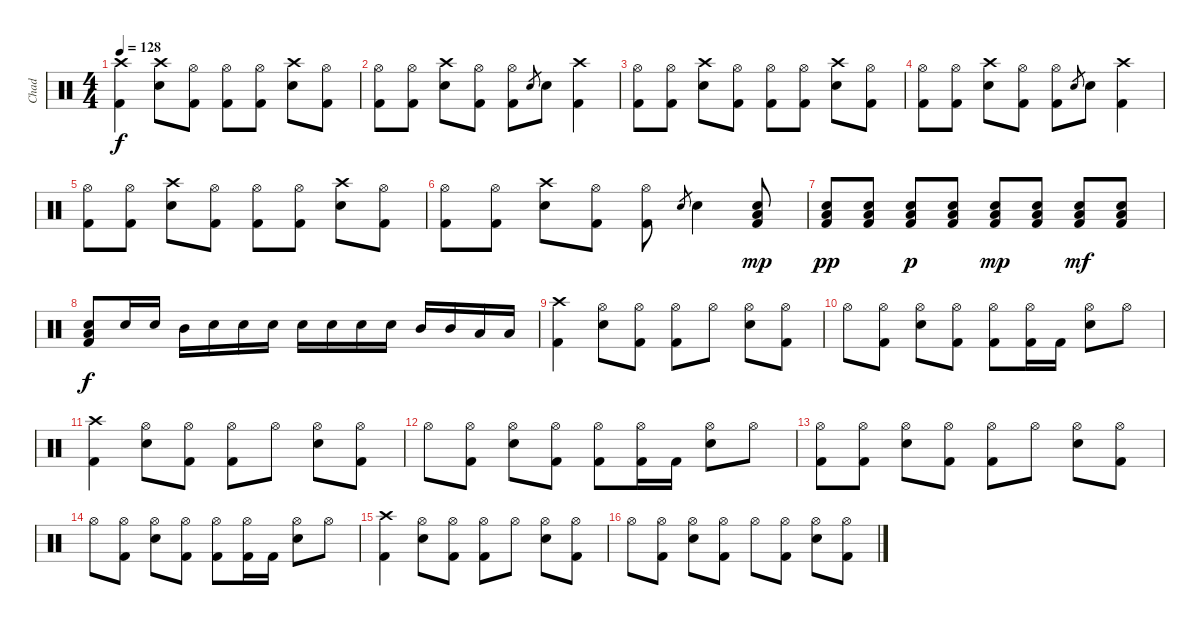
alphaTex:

\track ("Chad" "Chad") {instrument percussion}
\staff {score}
\articulation defaults
\ts (4 4)
\tempo 128
\clef neutral
\ks c
("Crash high (hit)" "Kick (hit) 2").4{dy f} ("Crash high (hit)" "Snare (hit) 2").8 ("Hi-Hat (open)" "Kick (hit) 2").8 ("Hi-Hat (open)" "Kick (hit) 2").8 ("Hi-Hat (open)" "Kick (hit) 2").8 ("Crash high (hit)" "Snare (hit) 2").8 ("Hi-Hat (open)" "Kick (hit) 2").8 |
("Hi-Hat (open)" "Kick (hit) 2").8 ("Hi-Hat (open)" "Kick (hit) 2").8 ("Crash high (hit)" "Snare (hit) 2").8 ("Hi-Hat (open)" "Kick (hit) 2").8 ("Hi-Hat (open)" "Kick (hit) 2").8 "Snare (hit) 2".8{gr} "Snare (hit) 2".8 ("Crash high (hit)" "Kick (hit) 2").4 |
("Hi-Hat (open)" "Kick (hit) 2").8 ("Hi-Hat (open)" "Kick (hit) 2").8 ("Crash high (hit)" "Snare (hit) 2").8 ("Hi-Hat (open)" "Kick (hit) 2").8 ("Hi-Hat (open)" "Kick (hit) 2").8 ("Hi-Hat (open)" "Kick (hit) 2").8 ("Crash high (hit)" "Snare (hit) 2").8 ("Hi-Hat (open)" "Kick (hit) 2").8 |
("Hi-Hat (open)" "Kick (hit) 2").8 ("Hi-Hat (open)" "Kick (hit) 2").8 ("Crash high (hit)" "Snare (hit) 2").8 ("Hi-Hat (open)" "Kick (hit) 2").8 ("Hi-Hat (open)" "Kick (hit) 2").8 "Snare (hit) 2".8{gr} "Snare (hit) 2".8 ("Crash high (hit)" "Kick (hit) 2").4 |
("Hi-Hat (open)" "Kick (hit) 2").8 ("Hi-Hat (open)" "Kick (hit) 2").8 ("Crash high (hit)" "Snare (hit) 2").8 ("Hi-Hat (open)" "Kick (hit) 2").8 ("Hi-Hat (open)" "Kick (hit) 2").8 ("Hi-Hat (open)" "Kick (hit) 2").8 ("Crash high (hit)" "Snare (hit) 2").8 ("Hi-Hat (open)" "Kick (hit) 2").8 |
("Hi-Hat (open)" "Kick (hit) 2").8 ("Hi-Hat (open)" "Kick (hit) 2").8 ("Crash high (hit)" "Snare (hit) 2").8 ("Hi-Hat (open)" "Kick (hit) 2").8 ("Hi-Hat (open)" "Kick (hit) 2").8 "Snare (hit) 2".8{gr} "Snare (hit) 2".4 ("Low Tom (hit)" "Snare (hit) 2" "Kick (hit) 2").8{dy mp} |
("Low Tom (hit)" "Snare (hit) 2" "Kick (hit) 2").8{dy pp} ("Low Tom (hit)" "Snare (hit) 2" "Kick (hit) 2").8 ("Low Tom (hit)" "Snare (hit) 2" "Kick (hit) 2").8{dy p} ("Low Tom (hit)" "Snare (hit) 2" "Kick (hit) 2").8 ("Low Tom (hit)" "Snare (hit) 2" "Kick (hit) 2").8{dy mp} ("Low Tom (hit)" "Snare (hit) 2" "Kick (hit) 2").8 ("Low Tom (hit)" "Snare (hit) 2" "Kick (hit) 2").8{dy mf} ("Low Tom (hit)" "Snare (hit) 2" "Kick (hit) 2").8 |
("Low Tom (hit)" "Snare (hit) 2" "Kick (hit) 2").8{dy f} "Snare (hit) 2".16 "Snare (hit) 2".16 "Mid Tom (hit)".16 "Snare (hit) 2".16 "Snare (hit) 2".16 "Snare (hit) 2".16 "Snare (hit) 2".16 "Snare (hit) 2".16 "Snare (hit) 2".16 "Snare (hit) 2".16 "Mid Tom (hit)".16 "Mid Tom (hit)".16 "Low Tom (hit)".16 "Low Tom (hit)".16 |
("Crash high (hit)" "Kick (hit) 2").4 ("Hi-Hat (open)" "Snare (hit) 2").8 ("Hi-Hat (open)" "Kick (hit) 2").8 ("Hi-Hat (open)" "Kick (hit) 2").8 "Hi-Hat (open)".8 ("Hi-Hat (open)" "Snare (hit) 2").8 ("Hi-Hat (open)" "Kick (hit) 2").8 |
"Hi-Hat (open)".8 ("Hi-Hat (open)" "Kick (hit) 2").8 ("Hi-Hat (open)" "Snare (hit) 2").8 ("Hi-Hat (open)" "Kick (hit) 2").8 ("Hi-Hat (open)" "Kick (hit) 2").8 ("Hi-Hat (open)" "Kick (hit) 2").16 "Kick (hit) 2".16 ("Hi-Hat (open)" "Snare (hit) 2").8 "Hi-Hat (open)".8 |
("Crash high (hit)" "Kick (hit) 2").4 ("Hi-Hat (open)" "Snare (hit) 2").8 ("Hi-Hat (open)" "Kick (hit) 2").8 ("Hi-Hat (open)" "Kick (hit) 2").8 "Hi-Hat (open)".8 ("Hi-Hat (open)" "Snare (hit) 2").8 ("Hi-Hat (open)" "Kick (hit) 2").8 |
"Hi-Hat (open)".8 ("Hi-Hat (open)" "Kick (hit) 2").8 ("Hi-Hat (open)" "Snare (hit) 2").8 ("Hi-Hat (open)" "Kick (hit) 2").8 ("Hi-Hat (open)" "Kick (hit) 2").8 ("Hi-Hat (open)" "Kick (hit) 2").16 "Kick (hit) 2".16 ("Hi-Hat (open)" "Snare (hit) 2").8 "Hi-Hat (open)".8 |
("Hi-Hat (open)" "Kick (hit) 2").8 ("Hi-Hat (open)" "Kick (hit) 2").8 ("Hi-Hat (open)" "Snare (hit) 2").8 ("Hi-Hat (open)" "Kick (hit) 2").8 ("Hi-Hat (open)" "Kick (hit) 2").8 "Hi-Hat (open)".8 ("Hi-Hat (open)" "Snare (hit) 2").8 ("Hi-Hat (open)" "Kick (hit) 2").8 |
"Hi-Hat (open)".8 ("Hi-Hat (open)" "Kick (hit) 2").8 ("Hi-Hat (open)" "Snare (hit) 2").8 ("Hi-Hat (open)" "Kick (hit) 2").8 ("Hi-Hat (open)" "Kick (hit) 2").8 ("Hi-Hat (open)" "Kick (hit) 2").16 "Kick (hit) 2".16 ("Hi-Hat (open)" "Snare (hit) 2").8 "Hi-Hat (open)".8 |
("Crash high (hit)" "Kick (hit) 2").4 ("Hi-Hat (open)" "Snare (hit) 2").8 ("Hi-Hat (open)" "Kick (hit) 2").8 ("Hi-Hat (open)" "Kick (hit) 2").8 "Hi-Hat (open)".8 ("Hi-Hat (open)" "Snare (hit) 2").8 ("Hi-Hat (open)" "Kick (hit) 2").8 |
"Hi-Hat (open)".8 ("Hi-Hat (open)" "Kick (hit) 2").8 ("Hi-Hat (open)" "Snare (hit) 2").8 ("Hi-Hat (open)" "Kick (hit) 2").8 "Hi-Hat (open)".8 ("Hi-Hat (open)" "Kick (hit) 2").8 ("Hi-Hat (open)" "Snare (hit) 2").8 ("Hi-Hat (open)" "Kick (hit) 2").8
